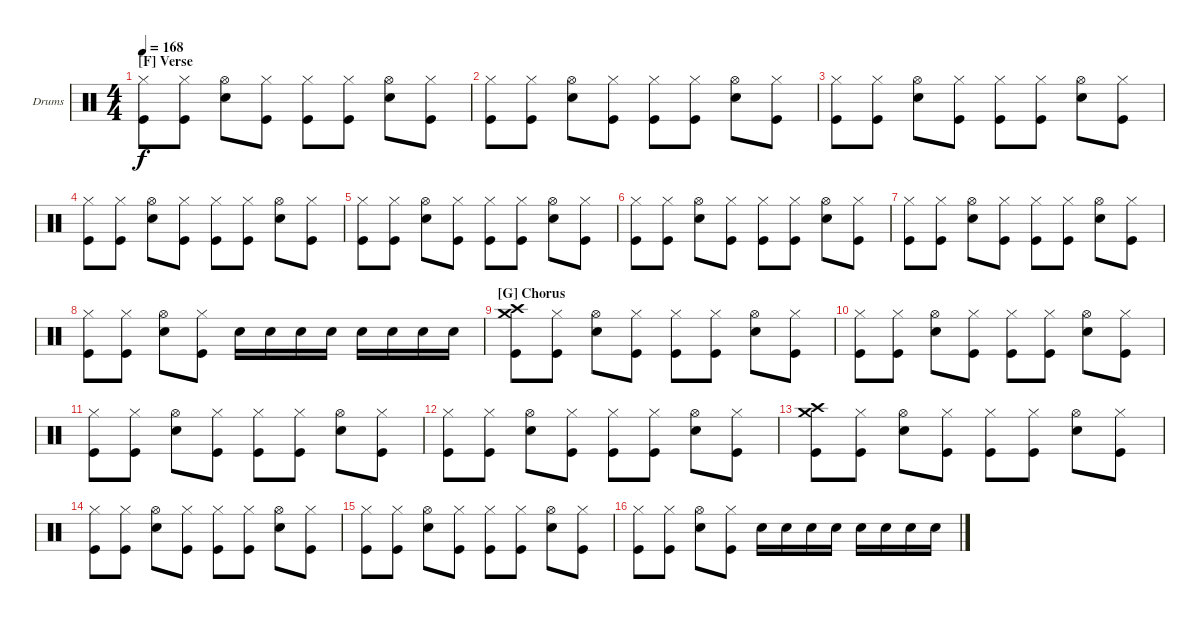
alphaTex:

\bracketExtendMode groupsimilarinstruments
\firstSystemTrackNameOrientation horizontal
\otherSystemsTrackNameOrientation horizontal
\track ("Drumkit" "Drums") {instrument percussion}
\staff {score}
\articulation defaults
\ts (4 4)
\section ("F" "Verse")
\tempo 168
\clef neutral
\scale
0.973518
\ks c
("Hi-Hat (closed)" "Kick (hit)").8{dy f} ("Hi-Hat (closed)" "Kick (hit)").8 ("Hi-Hat (open)" "Snare (hit) 2").8 ("Hi-Hat (closed)" "Kick (hit)").8 ("Hi-Hat (closed)" "Kick (hit)").8 ("Hi-Hat (closed)" "Kick (hit)").8 ("Hi-Hat (open)" "Snare (hit) 2").8 ("Hi-Hat (closed)" "Kick (hit)").8 |
\scale
0.973518 ("Hi-Hat (closed)" "Kick (hit)").8 ("Hi-Hat (closed)" "Kick (hit)").8 ("Hi-Hat (open)" "Snare (hit) 2").8 ("Hi-Hat (closed)" "Kick (hit)").8 ("Hi-Hat (closed)" "Kick (hit)").8 ("Hi-Hat (closed)" "Kick (hit)").8 ("Hi-Hat (open)" "Snare (hit) 2").8 ("Hi-Hat (closed)" "Kick (hit)").8 |
\scale
1.05296 ("Hi-Hat (closed)" "Kick (hit)").8 ("Hi-Hat (closed)" "Kick (hit)").8 ("Hi-Hat (open)" "Snare (hit) 2").8 ("Hi-Hat (closed)" "Kick (hit)").8 ("Hi-Hat (closed)" "Kick (hit)").8 ("Hi-Hat (closed)" "Kick (hit)").8 ("Hi-Hat (open)" "Snare (hit) 2").8 ("Hi-Hat (closed)" "Kick (hit)").8 |
\scale
0.973518 ("Hi-Hat (closed)" "Kick (hit)").8 ("Hi-Hat (closed)" "Kick (hit)").8 ("Hi-Hat (open)" "Snare (hit) 2").8 ("Hi-Hat (closed)" "Kick (hit)").8 ("Hi-Hat (closed)" "Kick (hit)").8 ("Hi-Hat (closed)" "Kick (hit)").8 ("Hi-Hat (open)" "Snare (hit) 2").8 ("Hi-Hat (closed)" "Kick (hit)").8 |
\scale
0.973518 ("Hi-Hat (closed)" "Kick (hit)").8 ("Hi-Hat (closed)" "Kick (hit)").8 ("Hi-Hat (open)" "Snare (hit) 2").8 ("Hi-Hat (closed)" "Kick (hit)").8 ("Hi-Hat (closed)" "Kick (hit)").8 ("Hi-Hat (closed)" "Kick (hit)").8 ("Hi-Hat (open)" "Snare (hit) 2").8 ("Hi-Hat (closed)" "Kick (hit)").8 |
\scale
1.05296 ("Hi-Hat (closed)" "Kick (hit)").8 ("Hi-Hat (closed)" "Kick (hit)").8 ("Hi-Hat (open)" "Snare (hit) 2").8 ("Hi-Hat (closed)" "Kick (hit)").8 ("Hi-Hat (closed)" "Kick (hit)").8 ("Hi-Hat (closed)" "Kick (hit)").8 ("Hi-Hat (open)" "Snare (hit) 2").8 ("Hi-Hat (closed)" "Kick (hit)").8 |
\scale
0.973518 ("Hi-Hat (closed)" "Kick (hit)").8 ("Hi-Hat (closed)" "Kick (hit)").8 ("Hi-Hat (open)" "Snare (hit) 2").8 ("Hi-Hat (closed)" "Kick (hit)").8 ("Hi-Hat (closed)" "Kick (hit)").8 ("Hi-Hat (closed)" "Kick (hit)").8 ("Hi-Hat (open)" "Snare (hit) 2").8 ("Hi-Hat (closed)" "Kick (hit)").8 |
\scale
0.973518 ("Hi-Hat (closed)" "Kick (hit)").8 ("Hi-Hat (closed)" "Kick (hit)").8 ("Hi-Hat (open)" "Snare (hit) 2").8 ("Hi-Hat (closed)" "Kick (hit)").8 "Snare (hit) 2".16 "Snare (hit) 2".16 "Snare (hit) 2".16 "Snare (hit) 2".16 "Snare (hit) 2".16 "Snare (hit) 2".16 "Snare (hit) 2".16 "Snare (hit) 2".16 |
\section ("G" "Chorus")
\scale
1.05296 ("Crash medium (hit)" "Crash high (hit)" "Kick (hit)").8 ("Hi-Hat (closed)" "Kick (hit)").8 ("Hi-Hat (open)" "Snare (hit) 2").8 ("Hi-Hat (closed)" "Kick (hit)").8 ("Hi-Hat (closed)" "Kick (hit)").8 ("Hi-Hat (closed)" "Kick (hit)").8 ("Hi-Hat (open)" "Snare (hit) 2").8 ("Hi-Hat (closed)" "Kick (hit)").8 |
\scale
0.973518 ("Hi-Hat (closed)" "Kick (hit)").8 ("Hi-Hat (closed)" "Kick (hit)").8 ("Hi-Hat (open)" "Snare (hit) 2").8 ("Hi-Hat (closed)" "Kick (hit)").8 ("Hi-Hat (closed)" "Kick (hit)").8 ("Hi-Hat (closed)" "Kick (hit)").8 ("Hi-Hat (open)" "Snare (hit) 2").8 ("Hi-Hat (closed)" "Kick (hit)").8 |
\scale
0.973518 ("Hi-Hat (closed)" "Kick (hit)").8 ("Hi-Hat (closed)" "Kick (hit)").8 ("Hi-Hat (open)" "Snare (hit) 2").8 ("Hi-Hat (closed)" "Kick (hit)").8 ("Hi-Hat (closed)" "Kick (hit)").8 ("Hi-Hat (closed)" "Kick (hit)").8 ("Hi-Hat (open)" "Snare (hit) 2").8 ("Hi-Hat (closed)" "Kick (hit)").8 |
\scale
1.05296 ("Hi-Hat (closed)" "Kick (hit)").8 ("Hi-Hat (closed)" "Kick (hit)").8 ("Hi-Hat (open)" "Snare (hit) 2").8 ("Hi-Hat (closed)" "Kick (hit)").8 ("Hi-Hat (closed)" "Kick (hit)").8 ("Hi-Hat (closed)" "Kick (hit)").8 ("Hi-Hat (open)" "Snare (hit) 2").8 ("Hi-Hat (closed)" "Kick (hit)").8 |
\scale
0.973518 ("Crash medium (hit)" "Crash high (hit)" "Kick (hit)").8 ("Hi-Hat (closed)" "Kick (hit)").8 ("Hi-Hat (open)" "Snare (hit) 2").8 ("Hi-Hat (closed)" "Kick (hit)").8 ("Hi-Hat (closed)" "Kick (hit)").8 ("Hi-Hat (closed)" "Kick (hit)").8 ("Hi-Hat (open)" "Snare (hit) 2").8 ("Hi-Hat (closed)" "Kick (hit)").8 |
\scale
0.973518 ("Hi-Hat (closed)" "Kick (hit)").8 ("Hi-Hat (closed)" "Kick (hit)").8 ("Hi-Hat (open)" "Snare (hit) 2").8 ("Hi-Hat (closed)" "Kick (hit)").8 ("Hi-Hat (closed)" "Kick (hit)").8 ("Hi-Hat (closed)" "Kick (hit)").8 ("Hi-Hat (open)" "Snare (hit) 2").8 ("Hi-Hat (closed)" "Kick (hit)").8 |
\scale
1.05296 ("Hi-Hat (closed)" "Kick (hit)").8 ("Hi-Hat (closed)" "Kick (hit)").8 ("Hi-Hat (open)" "Snare (hit) 2").8 ("Hi-Hat (closed)" "Kick (hit)").8 ("Hi-Hat (closed)" "Kick (hit)").8 ("Hi-Hat (closed)" "Kick (hit)").8 ("Hi-Hat (open)" "Snare (hit) 2").8 ("Hi-Hat (closed)" "Kick (hit)").8 |
\scale
0.973518 ("Hi-Hat (closed)" "Kick (hit)").8 ("Hi-Hat (closed)" "Kick (hit)").8 ("Hi-Hat (open)" "Snare (hit) 2").8 ("Hi-Hat (closed)" "Kick (hit)").8 "Snare (hit) 2".16 "Snare (hit) 2".16 "Snare (hit) 2".16 "Snare (hit) 2".16 "Snare (hit) 2".16 "Snare (hit) 2".16 "Snare (hit) 2".16 "Snare (hit) 2".16
